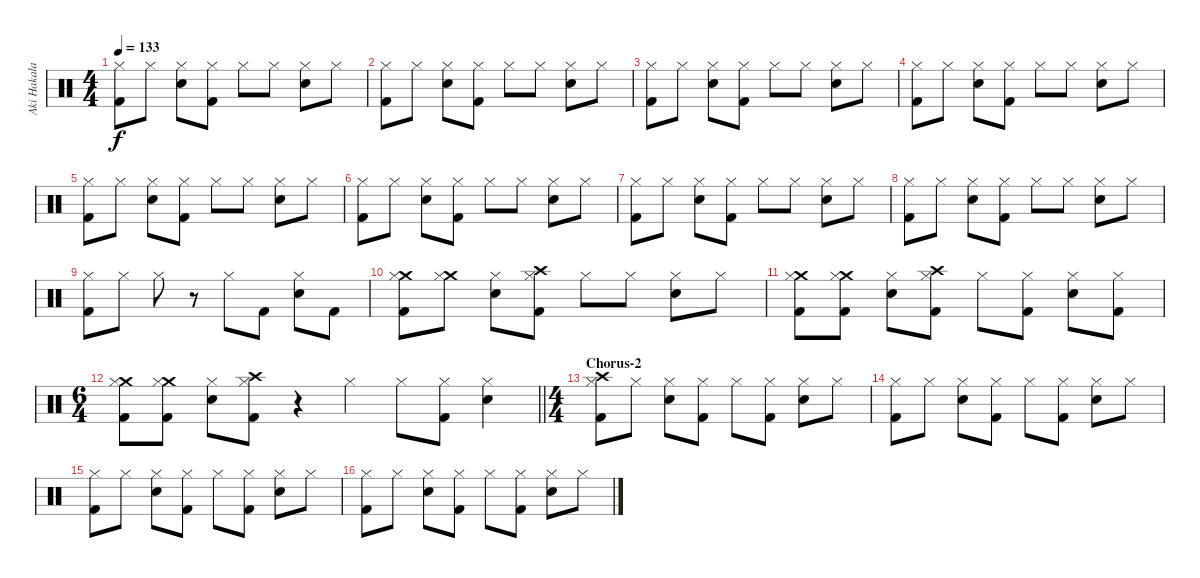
\track ("Aki Hakala - Drums" "Aki Hakala") {instrument percussion}
\staff {score}
\articulation defaults
\ts (4 4)
\tempo 133
\clef neutral
\ks c
("Hi-Hat (closed)" "Kick (hit) 2").8{dy f} "Hi-Hat (closed)".8 ("Snare (hit) 2" "Hi-Hat (closed)").8 ("Hi-Hat (closed)" "Kick (hit) 2").8 "Hi-Hat (closed)".8 "Hi-Hat (closed)".8 ("Snare (hit) 2" "Hi-Hat (closed)").8 "Hi-Hat (closed)".8 |
("Hi-Hat (closed)" "Kick (hit) 2").8 "Hi-Hat (closed)".8 ("Snare (hit) 2" "Hi-Hat (closed)").8 ("Hi-Hat (closed)" "Kick (hit) 2").8 "Hi-Hat (closed)".8 "Hi-Hat (closed)".8 ("Snare (hit) 2" "Hi-Hat (closed)").8 "Hi-Hat (closed)".8 |
("Hi-Hat (closed)" "Kick (hit) 2").8 "Hi-Hat (closed)".8 ("Snare (hit) 2" "Hi-Hat (closed)").8 ("Hi-Hat (closed)" "Kick (hit) 2").8 "Hi-Hat (closed)".8 "Hi-Hat (closed)".8 ("Snare (hit) 2" "Hi-Hat (closed)").8 "Hi-Hat (closed)".8 |
("Hi-Hat (closed)" "Kick (hit) 2").8 "Hi-Hat (closed)".8 ("Snare (hit) 2" "Hi-Hat (closed)").8 ("Hi-Hat (closed)" "Kick (hit) 2").8 "Hi-Hat (closed)".8 "Hi-Hat (closed)".8 ("Snare (hit) 2" "Hi-Hat (closed)").8 "Hi-Hat (closed)".8 |
("Hi-Hat (closed)" "Kick (hit) 2").8 "Hi-Hat (closed)".8 ("Snare (hit) 2" "Hi-Hat (closed)").8 ("Hi-Hat (closed)" "Kick (hit) 2").8 "Hi-Hat (closed)".8 "Hi-Hat (closed)".8 ("Snare (hit) 2" "Hi-Hat (closed)").8 "Hi-Hat (closed)".8 |
("Hi-Hat (closed)" "Kick (hit) 2").8 "Hi-Hat (closed)".8 ("Snare (hit) 2" "Hi-Hat (closed)").8 ("Hi-Hat (closed)" "Kick (hit) 2").8 "Hi-Hat (closed)".8 "Hi-Hat (closed)".8 ("Snare (hit) 2" "Hi-Hat (closed)").8 "Hi-Hat (closed)".8 |
("Hi-Hat (closed)" "Kick (hit) 2").8 "Hi-Hat (closed)".8 ("Snare (hit) 2" "Hi-Hat (closed)").8 ("Hi-Hat (closed)" "Kick (hit) 2").8 "Hi-Hat (closed)".8 "Hi-Hat (closed)".8 ("Snare (hit) 2" "Hi-Hat (closed)").8 "Hi-Hat (closed)".8 |
("Hi-Hat (closed)" "Kick (hit) 2").8 "Hi-Hat (closed)".8 ("Snare (hit) 2" "Hi-Hat (closed)").8 ("Hi-Hat (closed)" "Kick (hit) 2").8 "Hi-Hat (closed)".8 "Hi-Hat (closed)".8 ("Snare (hit) 2" "Hi-Hat (closed)").8 "Hi-Hat (closed)".8 |
("Hi-Hat (closed)" "Kick (hit) 2").8 "Hi-Hat (closed)".8 "Hi-Hat (closed)".8 r.8 "Hi-Hat (closed)".8 "Kick (hit) 2".8 ("Snare (hit) 2" "Hi-Hat (closed)").8 "Kick (hit) 2".8 |
("Crash medium (hit)" "Hi-Hat (closed)" "Kick (hit) 2").8 ("Crash medium (hit)" "Hi-Hat (closed)").8 ("Snare (hit) 2" "Hi-Hat (closed)").8 ("Crash high (hit)" "Hi-Hat (closed)" "Kick (hit) 2").8 "Hi-Hat (closed)".8 "Hi-Hat (closed)".8 ("Snare (hit) 2" "Hi-Hat (closed)").8 "Hi-Hat (closed)".8 |
("Crash medium (hit)" "Hi-Hat (closed)" "Kick (hit) 2").8 ("Crash medium (hit)" "Hi-Hat (closed)" "Kick (hit) 2").8 ("Snare (hit) 2" "Hi-Hat (closed)").8 ("Crash high (hit)" "Hi-Hat (closed)" "Kick (hit) 2").8 "Hi-Hat (closed)".8 ("Hi-Hat (closed)" "Kick (hit) 2").8 ("Snare (hit) 2" "Hi-Hat (closed)").8 ("Hi-Hat (closed)" "Kick (hit) 2").8 |
\ts (6 4)
\barLineRight lightlight
("Crash medium (hit)" "Hi-Hat (closed)" "Kick (hit) 2").8 ("Crash medium (hit)" "Hi-Hat (closed)" "Kick (hit) 2").8 ("Snare (hit) 2" "Hi-Hat (closed)").8 ("Crash high (hit)" "Hi-Hat (closed)" "Kick (hit) 2").8 r.4 "Hi-Hat (closed)".4 "Hi-Hat (closed)".8 ("Hi-Hat (closed)" "Kick (hit) 2").8 ("Snare (hit) 2" "Hi-Hat (closed)").4 |
\ts (4 4)
\section ("" "Chorus-2")
("Crash high (hit)" "Hi-Hat (closed)" "Kick (hit) 2").8 "Hi-Hat (closed)".8 ("Snare (hit) 2" "Hi-Hat (closed)").8 ("Hi-Hat (closed)" "Kick (hit) 2").8 "Hi-Hat (closed)".8 ("Hi-Hat (closed)" "Kick (hit) 2").8 ("Snare (hit) 2" "Hi-Hat (closed)").8 "Hi-Hat (closed)".8 |
("Hi-Hat (closed)" "Kick (hit) 2").8 "Hi-Hat (closed)".8 ("Snare (hit) 2" "Hi-Hat (closed)").8 ("Hi-Hat (closed)" "Kick (hit) 2").8 "Hi-Hat (closed)".8 ("Hi-Hat (closed)" "Kick (hit) 2").8 ("Snare (hit) 2" "Hi-Hat (closed)").8 "Hi-Hat (closed)".8 |
("Hi-Hat (closed)" "Kick (hit) 2").8 "Hi-Hat (closed)".8 ("Snare (hit) 2" "Hi-Hat (closed)").8 ("Hi-Hat (closed)" "Kick (hit) 2").8 "Hi-Hat (closed)".8 ("Hi-Hat (closed)" "Kick (hit) 2").8 ("Snare (hit) 2" "Hi-Hat (closed)").8 "Hi-Hat (closed)".8 |
("Hi-Hat (closed)" "Kick (hit) 2").8 "Hi-Hat (closed)".8 ("Snare (hit) 2" "Hi-Hat (closed)").8 ("Hi-Hat (closed)" "Kick (hit) 2").8 "Hi-Hat (closed)".8 ("Hi-Hat (closed)" "Kick (hit) 2").8 ("Snare (hit) 2" "Hi-Hat (closed)").8 "Hi-Hat (closed)".8
